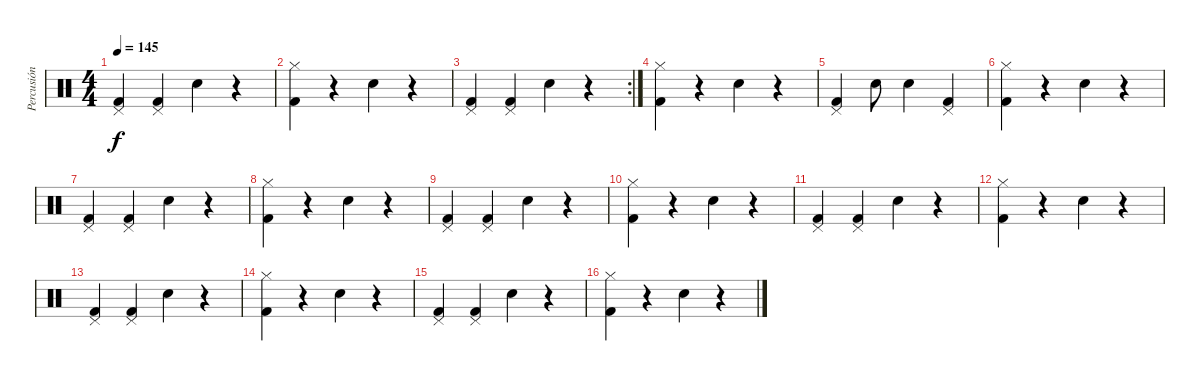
\track ("Percusión" "Percusión") {instrument percussion}
\staff {score}
\articulation defaults
\ts (4 4)
\tempo 145
\clef neutral
\ks c
("Pedal Hi-Hat (hit)" "Kick (hit) 2").4{dy f} ("Pedal Hi-Hat (hit)" "Kick (hit) 2").4 "Electric Snare (hit)".4 r.4 |
("Hi-Hat (closed)" "Kick (hit) 2").4 r.4 "Electric Snare (hit)".4 r.4 |
\rc 2
("Pedal Hi-Hat (hit)" "Kick (hit) 2").4 ("Pedal Hi-Hat (hit)" "Kick (hit) 2").4 "Electric Snare (hit)".4 r.4 |
("Hi-Hat (closed)" "Kick (hit) 2").4 r.4 "Electric Snare (hit)".4 r.4 |
("Pedal Hi-Hat (hit)" "Kick (hit) 2").4 "Electric Snare (hit)".8 "Electric Snare (hit)".4 ("Pedal Hi-Hat (hit)" "Kick (hit) 2").4 |
("Hi-Hat (closed)" "Kick (hit) 2").4 r.4 "Electric Snare (hit)".4 r.4 |
("Pedal Hi-Hat (hit)" "Kick (hit) 2").4 ("Pedal Hi-Hat (hit)" "Kick (hit) 2").4 "Electric Snare (hit)".4 r.4 |
("Hi-Hat (closed)" "Kick (hit) 2").4 r.4 "Electric Snare (hit)".4 r.4 |
("Pedal Hi-Hat (hit)" "Kick (hit) 2").4 ("Pedal Hi-Hat (hit)" "Kick (hit) 2").4 "Electric Snare (hit)".4 r.4 |
("Hi-Hat (closed)" "Kick (hit) 2").4 r.4 "Electric Snare (hit)".4 r.4 |
("Pedal Hi-Hat (hit)" "Kick (hit) 2").4 ("Pedal Hi-Hat (hit)" "Kick (hit) 2").4 "Electric Snare (hit)".4 r.4 |
("Hi-Hat (closed)" "Kick (hit) 2").4 r.4 "Electric Snare (hit)".4 r.4 |
("Pedal Hi-Hat (hit)" "Kick (hit) 2").4 ("Pedal Hi-Hat (hit)" "Kick (hit) 2").4 "Electric Snare (hit)".4 r.4 |
("Hi-Hat (closed)" "Kick (hit) 2").4 r.4 "Electric Snare (hit)".4 r.4 |
("Pedal Hi-Hat (hit)" "Kick (hit) 2").4 ("Pedal Hi-Hat (hit)" "Kick (hit) 2").4 "Electric Snare (hit)".4 r.4 |
("Hi-Hat (closed)" "Kick (hit) 2").4 r.4 "Electric Snare (hit)".4 r.4
